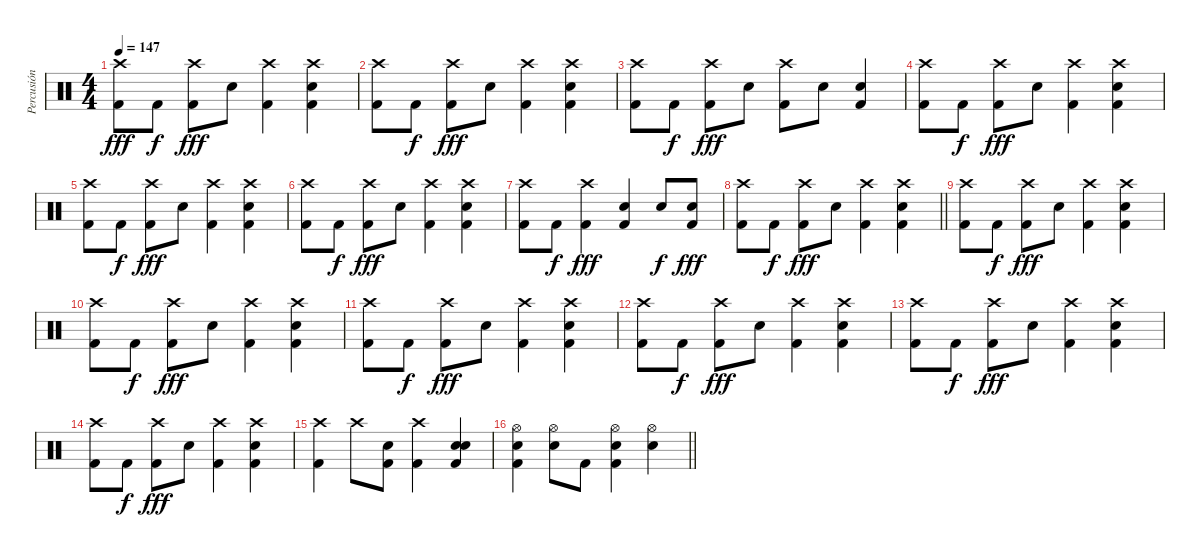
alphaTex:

\track ("Percusión" "Percusión") {instrument percussion}
\staff {score}
\articulation defaults
\ts (4 4)
\tempo 147
\clef neutral
\ks c
("Crash high (hit)" "Kick (hit) 2").8{dy fff} "Kick (hit) 2".8{dy f} ("Crash high (hit)" "Kick (hit) 2").8{dy fff} "Electric Snare (hit)".8 ("Crash high (hit)" "Kick (hit) 2").4 ("Crash high (hit)" "Electric Snare (hit)" "Kick (hit) 2").4 |
("Crash high (hit)" "Kick (hit) 2").8 "Kick (hit) 2".8{dy f} ("Crash high (hit)" "Kick (hit) 2").8{dy fff} "Electric Snare (hit)".8 ("Crash high (hit)" "Kick (hit) 2").4 ("Crash high (hit)" "Electric Snare (hit)" "Kick (hit) 2").4 |
("Crash high (hit)" "Kick (hit) 2").8 "Kick (hit) 2".8{dy f} ("Crash high (hit)" "Kick (hit) 2").8{dy fff} "Electric Snare (hit)".8 ("Crash high (hit)" "Kick (hit) 2").8 "Electric Snare (hit)".8 ("Electric Snare (hit)" "Kick (hit) 2").4 |
("Crash high (hit)" "Kick (hit) 2").8 "Kick (hit) 2".8{dy f} ("Crash high (hit)" "Kick (hit) 2").8{dy fff} "Electric Snare (hit)".8 ("Crash high (hit)" "Kick (hit) 2").4 ("Crash high (hit)" "Electric Snare (hit)" "Kick (hit) 2").4 |
("Crash high (hit)" "Kick (hit) 2").8 "Kick (hit) 2".8{dy f} ("Crash high (hit)" "Kick (hit) 2").8{dy fff} "Electric Snare (hit)".8 ("Crash high (hit)" "Kick (hit) 2").4 ("Crash high (hit)" "Electric Snare (hit)" "Kick (hit) 2").4 |
("Crash high (hit)" "Kick (hit) 2").8 "Kick (hit) 2".8{dy f} ("Crash high (hit)" "Kick (hit) 2").8{dy fff} "Electric Snare (hit)".8 ("Crash high (hit)" "Kick (hit) 2").4 ("Crash high (hit)" "Electric Snare (hit)" "Kick (hit) 2").4 |
("Crash high (hit)" "Kick (hit) 2").8 "Kick (hit) 2".8{dy f} ("Crash high (hit)" "Kick (hit) 2").4{dy fff} ("Electric Snare (hit)" "Kick (hit) 2").4 "Electric Snare (hit)".8{dy f} ("Electric Snare (hit)" "Kick (hit) 2").8{dy fff} |
\barLineRight lightlight
("Crash high (hit)" "Kick (hit) 2").8 "Kick (hit) 2".8{dy f} ("Crash high (hit)" "Kick (hit) 2").8{dy fff} "Electric Snare (hit)".8 ("Crash high (hit)" "Kick (hit) 2").4 ("Crash high (hit)" "Electric Snare (hit)" "Kick (hit) 2").4 |
("Crash high (hit)" "Kick (hit) 2").8 "Kick (hit) 2".8{dy f} ("Crash high (hit)" "Kick (hit) 2").8{dy fff} "Electric Snare (hit)".8 ("Crash high (hit)" "Kick (hit) 2").4 ("Crash high (hit)" "Electric Snare (hit)" "Kick (hit) 2").4 |
("Crash high (hit)" "Kick (hit) 2").8 "Kick (hit) 2".8{dy f} ("Crash high (hit)" "Kick (hit) 2").8{dy fff} "Electric Snare (hit)".8 ("Crash high (hit)" "Kick (hit) 2").4 ("Crash high (hit)" "Electric Snare (hit)" "Kick (hit) 2").4 |
("Crash high (hit)" "Kick (hit) 2").8 "Kick (hit) 2".8{dy f} ("Crash high (hit)" "Kick (hit) 2").8{dy fff} "Electric Snare (hit)".8 ("Crash high (hit)" "Kick (hit) 2").4 ("Crash high (hit)" "Electric Snare (hit)" "Kick (hit) 2").4 |
("Crash high (hit)" "Kick (hit) 2").8 "Kick (hit) 2".8{dy f} ("Crash high (hit)" "Kick (hit) 2").8{dy fff} "Electric Snare (hit)".8 ("Crash high (hit)" "Kick (hit) 2").4 ("Crash high (hit)" "Electric Snare (hit)" "Kick (hit) 2").4 |
("Crash high (hit)" "Kick (hit) 2").8 "Kick (hit) 2".8{dy f} ("Crash high (hit)" "Kick (hit) 2").8{dy fff} "Electric Snare (hit)".8 ("Crash high (hit)" "Kick (hit) 2").4 ("Crash high (hit)" "Electric Snare (hit)" "Kick (hit) 2").4 |
("Crash high (hit)" "Kick (hit) 2").8 "Kick (hit) 2".8{dy f} ("Crash high (hit)" "Kick (hit) 2").8{dy fff} "Electric Snare (hit)".8 ("Crash high (hit)" "Kick (hit) 2").4 ("Crash high (hit)" "Electric Snare (hit)" "Kick (hit) 2").4 |
("Crash high (hit)" "Kick (hit) 2").4 "Crash high (hit)".8 ("Electric Snare (hit)" "Kick (hit) 2").8 ("Crash high (hit)" "Kick (hit) 2").4 ("Electric Snare (hit)" "Electric Snare (hit)" "Kick (hit) 2").4{bd 240} |
\barLineRight lightlight
("Hi-Hat (open)" "Electric Snare (hit)" "Kick (hit) 2").4 ("Hi-Hat (open)" "Electric Snare (hit)").8 "Kick (hit) 2".8 ("Hi-Hat (open)" "Electric Snare (hit)" "Kick (hit) 2").4 ("Hi-Hat (open)" "Electric Snare (hit)").4
